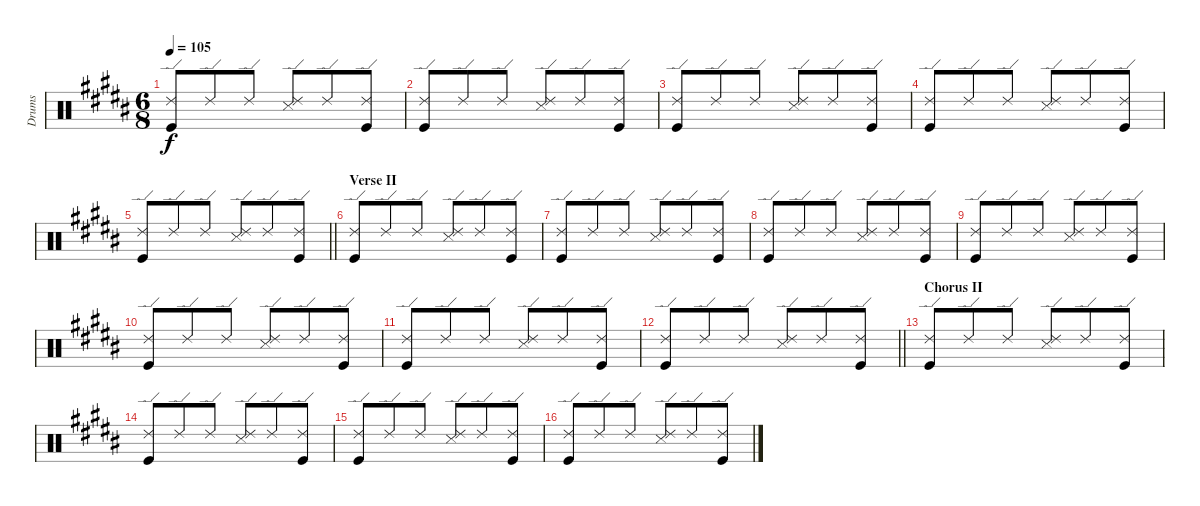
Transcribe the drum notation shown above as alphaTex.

\track ("Drums" "Drums") {instrument percussion}
\staff {score}
\articulation defaults
\ts (6 8)
\tempo 105
\clef neutral
\ks b
("Ride (edge) 2" "Kick (hit)").8{dy f} "Ride (edge) 2".8 "Ride (edge) 2".8 ("Ride (edge) 2" "Snare (side stick) 3").8 "Ride (edge) 2".8 ("Ride (edge) 2" "Kick (hit)").8 |
("Ride (edge) 2" "Kick (hit)").8 "Ride (edge) 2".8 "Ride (edge) 2".8 ("Ride (edge) 2" "Snare (side stick) 3").8 "Ride (edge) 2".8 ("Ride (edge) 2" "Kick (hit)").8 |
("Ride (edge) 2" "Kick (hit)").8 "Ride (edge) 2".8 "Ride (edge) 2".8 ("Ride (edge) 2" "Snare (side stick) 3").8 "Ride (edge) 2".8 ("Ride (edge) 2" "Kick (hit)").8 |
("Ride (edge) 2" "Kick (hit)").8 "Ride (edge) 2".8 "Ride (edge) 2".8 ("Ride (edge) 2" "Snare (side stick) 3").8 "Ride (edge) 2".8 ("Ride (edge) 2" "Kick (hit)").8 |
\barLineRight lightlight
("Ride (edge) 2" "Kick (hit)").8 "Ride (edge) 2".8 "Ride (edge) 2".8 ("Ride (edge) 2" "Snare (side stick) 3").8 "Ride (edge) 2".8 ("Ride (edge) 2" "Kick (hit)").8 |
\section ("" "Verse II")
("Ride (edge) 2" "Kick (hit)").8 "Ride (edge) 2".8 "Ride (edge) 2".8 ("Ride (edge) 2" "Snare (side stick) 3").8 "Ride (edge) 2".8 ("Ride (edge) 2" "Kick (hit)").8 |
("Ride (edge) 2" "Kick (hit)").8 "Ride (edge) 2".8 "Ride (edge) 2".8 ("Ride (edge) 2" "Snare (side stick) 3").8 "Ride (edge) 2".8 ("Ride (edge) 2" "Kick (hit)").8 |
("Ride (edge) 2" "Kick (hit)").8 "Ride (edge) 2".8 "Ride (edge) 2".8 ("Ride (edge) 2" "Snare (side stick) 3").8 "Ride (edge) 2".8 ("Ride (edge) 2" "Kick (hit)").8 |
("Ride (edge) 2" "Kick (hit)").8 "Ride (edge) 2".8 "Ride (edge) 2".8 ("Ride (edge) 2" "Snare (side stick) 3").8 "Ride (edge) 2".8 ("Ride (edge) 2" "Kick (hit)").8 |
("Ride (edge) 2" "Kick (hit)").8 "Ride (edge) 2".8 "Ride (edge) 2".8 ("Ride (edge) 2" "Snare (side stick) 3").8 "Ride (edge) 2".8 ("Ride (edge) 2" "Kick (hit)").8 |
("Ride (edge) 2" "Kick (hit)").8 "Ride (edge) 2".8 "Ride (edge) 2".8 ("Ride (edge) 2" "Snare (side stick) 3").8 "Ride (edge) 2".8 ("Ride (edge) 2" "Kick (hit)").8 |
\barLineRight lightlight
("Ride (edge) 2" "Kick (hit)").8 "Ride (edge) 2".8 "Ride (edge) 2".8 ("Ride (edge) 2" "Snare (side stick) 3").8 "Ride (edge) 2".8 ("Ride (edge) 2" "Kick (hit)").8 |
\section ("" "Chorus II")
("Ride (edge) 2" "Kick (hit)").8 "Ride (edge) 2".8 "Ride (edge) 2".8 ("Ride (edge) 2" "Snare (side stick) 3").8 "Ride (edge) 2".8 ("Ride (edge) 2" "Kick (hit)").8 |
("Ride (edge) 2" "Kick (hit)").8 "Ride (edge) 2".8 "Ride (edge) 2".8 ("Ride (edge) 2" "Snare (side stick) 3").8 "Ride (edge) 2".8 ("Ride (edge) 2" "Kick (hit)").8 |
("Ride (edge) 2" "Kick (hit)").8 "Ride (edge) 2".8 "Ride (edge) 2".8 ("Ride (edge) 2" "Snare (side stick) 3").8 "Ride (edge) 2".8 ("Ride (edge) 2" "Kick (hit)").8 |
("Ride (edge) 2" "Kick (hit)").8 "Ride (edge) 2".8 "Ride (edge) 2".8 ("Ride (edge) 2" "Snare (side stick) 3").8 "Ride (edge) 2".8 ("Ride (edge) 2" "Kick (hit)").8
